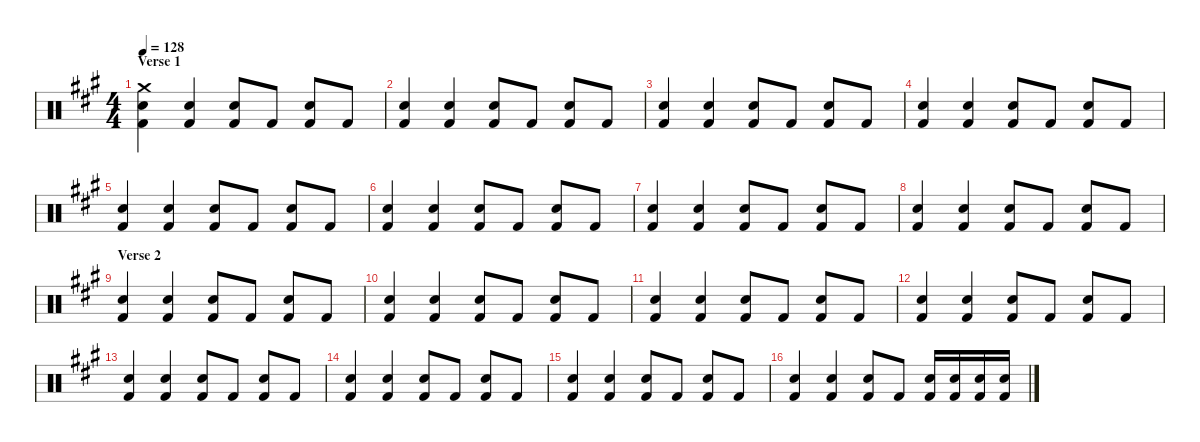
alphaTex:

\defaultSystemsLayout 4
\hideDynamics
\bracketExtendMode nobrackets
\singleTrackTrackNamePolicy hidden
\multiTrackTrackNamePolicy hidden
\firstSystemTrackNameMode fullname
\firstSystemTrackNameOrientation horizontal
\otherSystemsTrackNameOrientation horizontal
\track ("Drumkit" "Drums") {instrument percussion}
\staff {score}
\articulation defaults
\ts (4 4)
\section ("" "Verse 1")
\tempo 128
\clef neutral
\ks a
("Crash medium (hit)"{acc forcenatural} "Snare (hit) 2"{acc forcenatural} "Kick (hit) 2"{acc forcenatural}).4{dy f beam Down} ("Snare (hit) 2"{acc forcenatural} "Kick (hit) 2"{acc forcenatural}).4{beam Up} ("Snare (hit) 2"{acc forcenatural} "Kick (hit) 2"{acc forcenatural}).8{beam Up} "Kick (hit) 2"{acc forcenatural}.8{beam Up} ("Snare (hit) 2"{acc forcenatural} "Kick (hit) 2"{acc forcenatural}).8{beam Up} "Kick (hit) 2"{acc forcenatural}.8{beam Up} |
("Snare (hit) 2"{acc forcenatural} "Kick (hit) 2"{acc forcenatural}).4{beam Up} ("Snare (hit) 2"{acc forcenatural} "Kick (hit) 2"{acc forcenatural}).4{beam Up} ("Snare (hit) 2"{acc forcenatural} "Kick (hit) 2"{acc forcenatural}).8{beam Up} "Kick (hit) 2"{acc forcenatural}.8{beam Up} ("Snare (hit) 2"{acc forcenatural} "Kick (hit) 2"{acc forcenatural}).8{beam Up} "Kick (hit) 2"{acc forcenatural}.8{beam Up} |
("Snare (hit) 2"{acc forcenatural} "Kick (hit) 2"{acc forcenatural}).4{beam Up} ("Snare (hit) 2"{acc forcenatural} "Kick (hit) 2"{acc forcenatural}).4{beam Up} ("Snare (hit) 2"{acc forcenatural} "Kick (hit) 2"{acc forcenatural}).8{beam Up} "Kick (hit) 2"{acc forcenatural}.8{beam Up} ("Snare (hit) 2"{acc forcenatural} "Kick (hit) 2"{acc forcenatural}).8{beam Up} "Kick (hit) 2"{acc forcenatural}.8{beam Up} |
("Snare (hit) 2"{acc forcenatural} "Kick (hit) 2"{acc forcenatural}).4{beam Up} ("Snare (hit) 2"{acc forcenatural} "Kick (hit) 2"{acc forcenatural}).4{beam Up} ("Snare (hit) 2"{acc forcenatural} "Kick (hit) 2"{acc forcenatural}).8{beam Up} "Kick (hit) 2"{acc forcenatural}.8{beam Up} ("Snare (hit) 2"{acc forcenatural} "Kick (hit) 2"{acc forcenatural}).8{beam Up} "Kick (hit) 2"{acc forcenatural}.8{beam Up} |
("Snare (hit) 2"{acc forcenatural} "Kick (hit) 2"{acc forcenatural}).4{beam Up} ("Snare (hit) 2"{acc forcenatural} "Kick (hit) 2"{acc forcenatural}).4{beam Up} ("Snare (hit) 2"{acc forcenatural} "Kick (hit) 2"{acc forcenatural}).8{beam Up} "Kick (hit) 2"{acc forcenatural}.8{beam Up} ("Snare (hit) 2"{acc forcenatural} "Kick (hit) 2"{acc forcenatural}).8{beam Up} "Kick (hit) 2"{acc forcenatural}.8{beam Up} |
("Snare (hit) 2"{acc forcenatural} "Kick (hit) 2"{acc forcenatural}).4{beam Up} ("Snare (hit) 2"{acc forcenatural} "Kick (hit) 2"{acc forcenatural}).4{beam Up} ("Snare (hit) 2"{acc forcenatural} "Kick (hit) 2"{acc forcenatural}).8{beam Up} "Kick (hit) 2"{acc forcenatural}.8{beam Up} ("Snare (hit) 2"{acc forcenatural} "Kick (hit) 2"{acc forcenatural}).8{beam Up} "Kick (hit) 2"{acc forcenatural}.8{beam Up} |
("Snare (hit) 2"{acc forcenatural} "Kick (hit) 2"{acc forcenatural}).4{beam Up} ("Snare (hit) 2"{acc forcenatural} "Kick (hit) 2"{acc forcenatural}).4{beam Up} ("Snare (hit) 2"{acc forcenatural} "Kick (hit) 2"{acc forcenatural}).8{beam Up} "Kick (hit) 2"{acc forcenatural}.8{beam Up} ("Snare (hit) 2"{acc forcenatural} "Kick (hit) 2"{acc forcenatural}).8{beam Up} "Kick (hit) 2"{acc forcenatural}.8{beam Up} |
("Snare (hit) 2"{acc forcenatural} "Kick (hit) 2"{acc forcenatural}).4{beam Up} ("Snare (hit) 2"{acc forcenatural} "Kick (hit) 2"{acc forcenatural}).4{beam Up} ("Snare (hit) 2"{acc forcenatural} "Kick (hit) 2"{acc forcenatural}).8{beam Up} "Kick (hit) 2"{acc forcenatural}.8{beam Up} ("Snare (hit) 2"{acc forcenatural} "Kick (hit) 2"{acc forcenatural}).8{beam Up} "Kick (hit) 2"{acc forcenatural}.8{beam Up} |
\section ("" "Verse 2")
("Snare (hit) 2"{acc forcenatural} "Kick (hit) 2"{acc forcenatural}).4{beam Up} ("Snare (hit) 2"{acc forcenatural} "Kick (hit) 2"{acc forcenatural}).4{beam Up} ("Snare (hit) 2"{acc forcenatural} "Kick (hit) 2"{acc forcenatural}).8{beam Up} "Kick (hit) 2"{acc forcenatural}.8{beam Up} ("Snare (hit) 2"{acc forcenatural} "Kick (hit) 2"{acc forcenatural}).8{beam Up} "Kick (hit) 2"{acc forcenatural}.8{beam Up} |
("Snare (hit) 2"{acc forcenatural} "Kick (hit) 2"{acc forcenatural}).4{beam Up} ("Snare (hit) 2"{acc forcenatural} "Kick (hit) 2"{acc forcenatural}).4{beam Up} ("Snare (hit) 2"{acc forcenatural} "Kick (hit) 2"{acc forcenatural}).8{beam Up} "Kick (hit) 2"{acc forcenatural}.8{beam Up} ("Snare (hit) 2"{acc forcenatural} "Kick (hit) 2"{acc forcenatural}).8{beam Up} "Kick (hit) 2"{acc forcenatural}.8{beam Up} |
("Snare (hit) 2"{acc forcenatural} "Kick (hit) 2"{acc forcenatural}).4{beam Up} ("Snare (hit) 2"{acc forcenatural} "Kick (hit) 2"{acc forcenatural}).4{beam Up} ("Snare (hit) 2"{acc forcenatural} "Kick (hit) 2"{acc forcenatural}).8{beam Up} "Kick (hit) 2"{acc forcenatural}.8{beam Up} ("Snare (hit) 2"{acc forcenatural} "Kick (hit) 2"{acc forcenatural}).8{beam Up} "Kick (hit) 2"{acc forcenatural}.8{beam Up} |
("Snare (hit) 2"{acc forcenatural} "Kick (hit) 2"{acc forcenatural}).4{beam Up} ("Snare (hit) 2"{acc forcenatural} "Kick (hit) 2"{acc forcenatural}).4{beam Up} ("Snare (hit) 2"{acc forcenatural} "Kick (hit) 2"{acc forcenatural}).8{beam Up} "Kick (hit) 2"{acc forcenatural}.8{beam Up} ("Snare (hit) 2"{acc forcenatural} "Kick (hit) 2"{acc forcenatural}).8{beam Up} "Kick (hit) 2"{acc forcenatural}.8{beam Up} |
("Snare (hit) 2"{acc forcenatural} "Kick (hit) 2"{acc forcenatural}).4{beam Up} ("Snare (hit) 2"{acc forcenatural} "Kick (hit) 2"{acc forcenatural}).4{beam Up} ("Snare (hit) 2"{acc forcenatural} "Kick (hit) 2"{acc forcenatural}).8{beam Up} "Kick (hit) 2"{acc forcenatural}.8{beam Up} ("Snare (hit) 2"{acc forcenatural} "Kick (hit) 2"{acc forcenatural}).8{beam Up} "Kick (hit) 2"{acc forcenatural}.8{beam Up} |
("Snare (hit) 2"{acc forcenatural} "Kick (hit) 2"{acc forcenatural}).4{beam Up} ("Snare (hit) 2"{acc forcenatural} "Kick (hit) 2"{acc forcenatural}).4{beam Up} ("Snare (hit) 2"{acc forcenatural} "Kick (hit) 2"{acc forcenatural}).8{beam Up} "Kick (hit) 2"{acc forcenatural}.8{beam Up} ("Snare (hit) 2"{acc forcenatural} "Kick (hit) 2"{acc forcenatural}).8{beam Up} "Kick (hit) 2"{acc forcenatural}.8{beam Up} |
("Snare (hit) 2"{acc forcenatural} "Kick (hit) 2"{acc forcenatural}).4{beam Up} ("Snare (hit) 2"{acc forcenatural} "Kick (hit) 2"{acc forcenatural}).4{beam Up} ("Snare (hit) 2"{acc forcenatural} "Kick (hit) 2"{acc forcenatural}).8{beam Up} "Kick (hit) 2"{acc forcenatural}.8{beam Up} ("Snare (hit) 2"{acc forcenatural} "Kick (hit) 2"{acc forcenatural}).8{beam Up} "Kick (hit) 2"{acc forcenatural}.8{beam Up} |
("Snare (hit) 2"{acc forcenatural} "Kick (hit) 2"{acc forcenatural}).4{beam Up} ("Snare (hit) 2"{acc forcenatural} "Kick (hit) 2"{acc forcenatural}).4{beam Up} ("Snare (hit) 2"{acc forcenatural} "Kick (hit) 2"{acc forcenatural}).8{beam Up} "Kick (hit) 2"{acc forcenatural}.8{beam Up} ("Snare (hit) 2"{acc forcenatural} "Kick (hit) 2"{acc forcenatural}).16{beam Up} ("Snare (hit) 2"{acc forcenatural} "Kick (hit) 2"{acc forcenatural}).16{beam Up} ("Snare (hit) 2"{acc forcenatural} "Kick (hit) 2"{acc forcenatural}).16{beam Up} ("Snare (hit) 2"{acc forcenatural} "Kick (hit) 2"{acc forcenatural}).16{beam Up}
